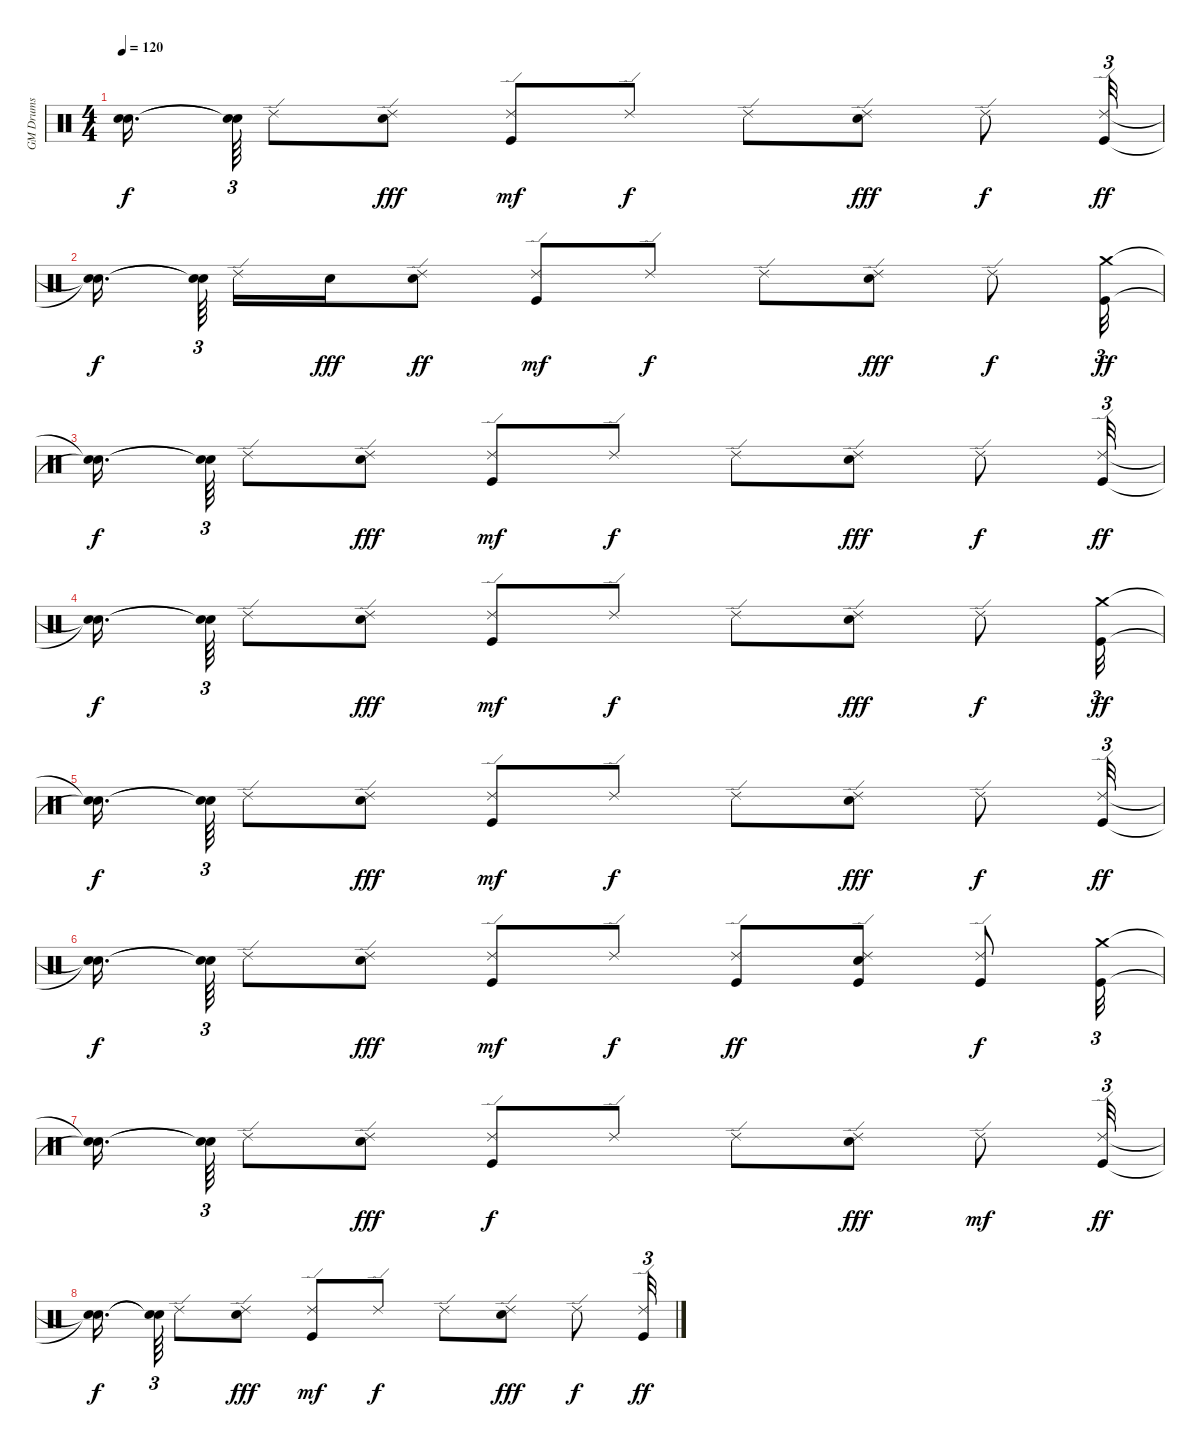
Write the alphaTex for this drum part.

\track ("GM Drums" "GM Drums") {instrument percussion}
\staff {score}
\articulation defaults
\ts (4 4)
\tempo 120
\clef neutral
\ks c
("Snare (hit)"{t} "Snare (hit)"{t}).16{d dy f} ("Snare (hit)"{t} "Snare (hit)"{t}).64{tu (3 2)} "Ride (edge) 2".8 ("Snare (hit) 2" "Ride (edge) 2").8{dy fff} ("Kick (hit)" "Ride (edge) 2").8{dy mf} "Ride (edge) 2".8{dy f} "Ride (edge) 2".8 ("Snare (hit) 2" "Ride (edge) 2").8{dy fff} "Ride (edge) 2".8{dy f} ("Kick (hit)" "Ride (edge) 2").32{tu (3 2) dy ff} |
("Snare (hit)"{t} "Snare (hit)"{t}).16{d dy f} ("Snare (hit)"{t} "Snare (hit)"{t}).64{tu (3 2)} "Ride (edge) 2".16 "Snare (hit) 2".16{dy fff} ("Snare (hit) 2" "Ride (edge) 2").8{dy ff} ("Kick (hit)" "Ride (edge) 2").8{dy mf} "Ride (edge) 2".8{dy f} "Ride (edge) 2".8 ("Snare (hit) 2" "Ride (edge) 2").8{dy fff} "Ride (edge) 2".8{dy f} ("Kick (hit)" "Crash medium (hit)").32{tu (3 2) dy ff} |
("Snare (hit)"{t} "Snare (hit)"{t}).16{d dy f} ("Snare (hit)"{t} "Snare (hit)"{t}).64{tu (3 2)} "Ride (edge) 2".8 ("Snare (hit) 2" "Ride (edge) 2").8{dy fff} ("Kick (hit)" "Ride (edge) 2").8{dy mf} "Ride (edge) 2".8{dy f} "Ride (edge) 2".8 ("Snare (hit) 2" "Ride (edge) 2").8{dy fff} "Ride (edge) 2".8{dy f} ("Kick (hit)" "Ride (edge) 2").32{tu (3 2) dy ff} |
("Snare (hit)"{t} "Snare (hit)"{t}).16{d dy f} ("Snare (hit)"{t} "Snare (hit)"{t}).64{tu (3 2)} "Ride (edge) 2".8 ("Snare (hit) 2" "Ride (edge) 2").8{dy fff} ("Kick (hit)" "Ride (edge) 2").8{dy mf} "Ride (edge) 2".8{dy f} "Ride (edge) 2".8 ("Snare (hit) 2" "Ride (edge) 2").8{dy fff} "Ride (edge) 2".8{dy f} ("Kick (hit)" "Crash medium (hit)").32{tu (3 2) dy ff} |
("Snare (hit)"{t} "Snare (hit)"{t}).16{d dy f} ("Snare (hit)"{t} "Snare (hit)"{t}).64{tu (3 2)} "Ride (edge) 2".8 ("Snare (hit) 2" "Ride (edge) 2").8{dy fff} ("Kick (hit)" "Ride (edge) 2").8{dy mf} "Ride (edge) 2".8{dy f} "Ride (edge) 2".8 ("Snare (hit) 2" "Ride (edge) 2").8{dy fff} "Ride (edge) 2".8{dy f} ("Kick (hit)" "Ride (edge) 2").32{tu (3 2) dy ff} |
("Snare (hit)"{t} "Snare (hit)"{t}).16{d dy f} ("Snare (hit)"{t} "Snare (hit)"{t}).64{tu (3 2)} "Ride (edge) 2".8 ("Snare (hit) 2" "Ride (edge) 2").8{dy fff} ("Kick (hit)" "Ride (edge) 2").8{dy mf} "Ride (edge) 2".8{dy f} ("Kick (hit)" "Ride (edge) 2").8{dy ff} ("Kick (hit)" "Snare (hit) 2" "Ride (edge) 2").8 ("Kick (hit)" "Ride (edge) 2").8{dy f} ("Kick (hit)" "Crash medium (hit)").32{tu (3 2)} |
("Snare (hit)"{t} "Snare (hit)"{t}).16{d} ("Snare (hit)"{t} "Snare (hit)"{t}).64{tu (3 2)} "Ride (edge) 2".8 ("Snare (hit) 2" "Ride (edge) 2").8{dy fff} ("Kick (hit)" "Ride (edge) 2").8{dy f} "Ride (edge) 2".8 "Ride (edge) 2".8 ("Snare (hit) 2" "Ride (edge) 2").8{dy fff} "Ride (edge) 2".8{dy mf} ("Kick (hit)" "Ride (edge) 2").32{tu (3 2) dy ff} |
("Snare (hit)"{t} "Snare (hit)"{t}).16{d dy f} ("Snare (hit)"{t} "Snare (hit)"{t}).64{tu (3 2)} "Ride (edge) 2".8 ("Snare (hit) 2" "Ride (edge) 2").8{dy fff} ("Kick (hit)" "Ride (edge) 2").8{dy mf} "Ride (edge) 2".8{dy f} "Ride (edge) 2".8 ("Snare (hit) 2" "Ride (edge) 2").8{dy fff} "Ride (edge) 2".8{dy f} ("Kick (hit)" "Ride (edge) 2").32{tu (3 2) dy ff}
